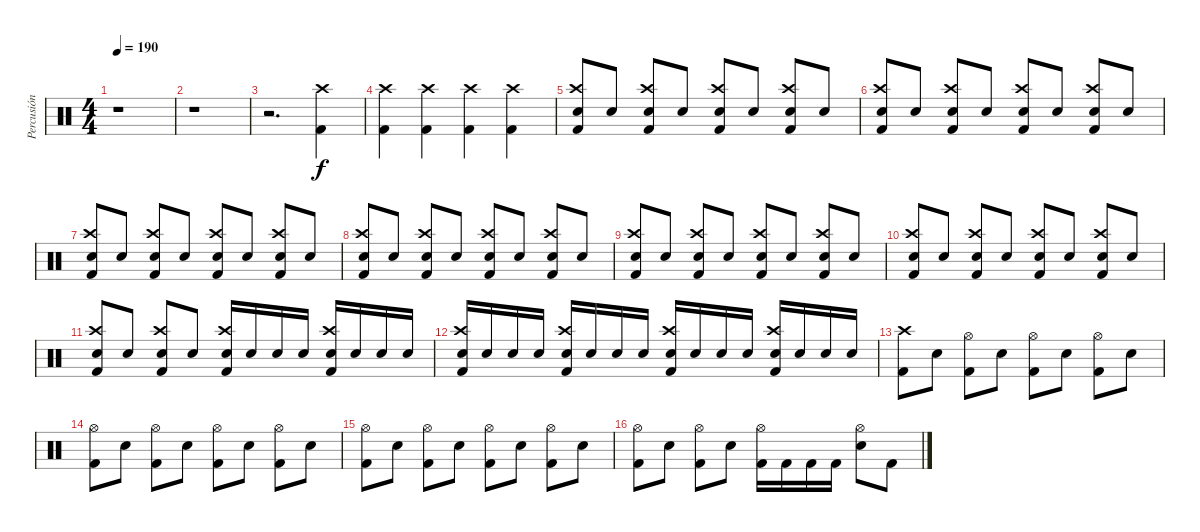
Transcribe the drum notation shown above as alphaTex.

\track ("Percusión" "Percusión") {instrument percussion}
\staff {score}
\articulation defaults
\ts (4 4)
\tempo 190
\clef neutral
\ks c
r.1{dy f} |
r.1 |
r.2{d} ("Kick (hit) 2" "Crash high (hit)").4 |
("Kick (hit) 2" "Crash high (hit)").4 ("Kick (hit) 2" "Crash high (hit)").4 ("Kick (hit) 2" "Crash high (hit)").4 ("Kick (hit) 2" "Crash high (hit)").4 |
("Kick (hit) 2" "Snare (hit) 2" "Crash high (hit)").8 "Snare (hit) 2".8 ("Kick (hit) 2" "Snare (hit) 2" "Crash high (hit)").8 "Snare (hit) 2".8 ("Kick (hit) 2" "Snare (hit) 2" "Crash high (hit)").8 "Snare (hit) 2".8 ("Kick (hit) 2" "Snare (hit) 2" "Crash high (hit)").8 "Snare (hit) 2".8 |
("Kick (hit) 2" "Snare (hit) 2" "Crash high (hit)").8 "Snare (hit) 2".8 ("Kick (hit) 2" "Snare (hit) 2" "Crash high (hit)").8 "Snare (hit) 2".8 ("Kick (hit) 2" "Snare (hit) 2" "Crash high (hit)").8 "Snare (hit) 2".8 ("Kick (hit) 2" "Snare (hit) 2" "Crash high (hit)").8 "Snare (hit) 2".8 |
("Kick (hit) 2" "Snare (hit) 2" "Crash high (hit)").8 "Snare (hit) 2".8 ("Kick (hit) 2" "Snare (hit) 2" "Crash high (hit)").8 "Snare (hit) 2".8 ("Kick (hit) 2" "Snare (hit) 2" "Crash high (hit)").8 "Snare (hit) 2".8 ("Kick (hit) 2" "Snare (hit) 2" "Crash high (hit)").8 "Snare (hit) 2".8 |
("Kick (hit) 2" "Snare (hit) 2" "Crash high (hit)").8 "Snare (hit) 2".8 ("Kick (hit) 2" "Snare (hit) 2" "Crash high (hit)").8 "Snare (hit) 2".8 ("Kick (hit) 2" "Snare (hit) 2" "Crash high (hit)").8 "Snare (hit) 2".8 ("Kick (hit) 2" "Snare (hit) 2" "Crash high (hit)").8 "Snare (hit) 2".8 |
("Kick (hit) 2" "Snare (hit) 2" "Crash high (hit)").8 "Snare (hit) 2".8 ("Kick (hit) 2" "Snare (hit) 2" "Crash high (hit)").8 "Snare (hit) 2".8 ("Kick (hit) 2" "Snare (hit) 2" "Crash high (hit)").8 "Snare (hit) 2".8 ("Kick (hit) 2" "Snare (hit) 2" "Crash high (hit)").8 "Snare (hit) 2".8 |
("Kick (hit) 2" "Snare (hit) 2" "Crash high (hit)").8 "Snare (hit) 2".8 ("Kick (hit) 2" "Snare (hit) 2" "Crash high (hit)").8 "Snare (hit) 2".8 ("Kick (hit) 2" "Snare (hit) 2" "Crash high (hit)").8 "Snare (hit) 2".8 ("Kick (hit) 2" "Snare (hit) 2" "Crash high (hit)").8 "Snare (hit) 2".8 |
("Kick (hit) 2" "Snare (hit) 2" "Crash high (hit)").8 "Snare (hit) 2".8 ("Kick (hit) 2" "Snare (hit) 2" "Crash high (hit)").8 "Snare (hit) 2".8 ("Kick (hit) 2" "Snare (hit) 2" "Crash high (hit)").16 "Snare (hit) 2".16 "Snare (hit) 2".16 "Snare (hit) 2".16 ("Kick (hit) 2" "Snare (hit) 2" "Crash high (hit)").16 "Snare (hit) 2".16 "Snare (hit) 2".16 "Snare (hit) 2".16 |
("Kick (hit) 2" "Snare (hit) 2" "Crash high (hit)").16 "Snare (hit) 2".16 "Snare (hit) 2".16 "Snare (hit) 2".16 ("Kick (hit) 2" "Snare (hit) 2" "Crash high (hit)").16 "Snare (hit) 2".16 "Snare (hit) 2".16 "Snare (hit) 2".16 ("Kick (hit) 2" "Snare (hit) 2" "Crash high (hit)").16 "Snare (hit) 2".16 "Snare (hit) 2".16 "Snare (hit) 2".16 ("Kick (hit) 2" "Snare (hit) 2" "Crash high (hit)").16 "Snare (hit) 2".16 "Snare (hit) 2".16 "Snare (hit) 2".16 |
("Kick (hit) 2" "Crash high (hit)").8 "Snare (hit) 2".8 ("Kick (hit) 2" "Hi-Hat (open)").8 "Snare (hit) 2".8 ("Kick (hit) 2" "Hi-Hat (open)").8 "Snare (hit) 2".8 ("Kick (hit) 2" "Hi-Hat (open)").8 "Snare (hit) 2".8 |
("Kick (hit) 2" "Hi-Hat (open)").8 "Snare (hit) 2".8 ("Kick (hit) 2" "Hi-Hat (open)").8 "Snare (hit) 2".8 ("Kick (hit) 2" "Hi-Hat (open)").8 "Snare (hit) 2".8 ("Kick (hit) 2" "Hi-Hat (open)").8 "Snare (hit) 2".8 |
("Kick (hit) 2" "Hi-Hat (open)").8 "Snare (hit) 2".8 ("Kick (hit) 2" "Hi-Hat (open)").8 "Snare (hit) 2".8 ("Kick (hit) 2" "Hi-Hat (open)").8 "Snare (hit) 2".8 ("Kick (hit) 2" "Hi-Hat (open)").8 "Snare (hit) 2".8 |
("Kick (hit) 2" "Hi-Hat (open)").8 "Snare (hit) 2".8 ("Kick (hit) 2" "Hi-Hat (open)").8 "Snare (hit) 2".8 ("Kick (hit) 2" "Hi-Hat (open)").16 "Kick (hit) 2".16 "Kick (hit) 2".16 "Kick (hit) 2".16 ("Snare (hit) 2" "Hi-Hat (open)").8 "Kick (hit) 2".8
